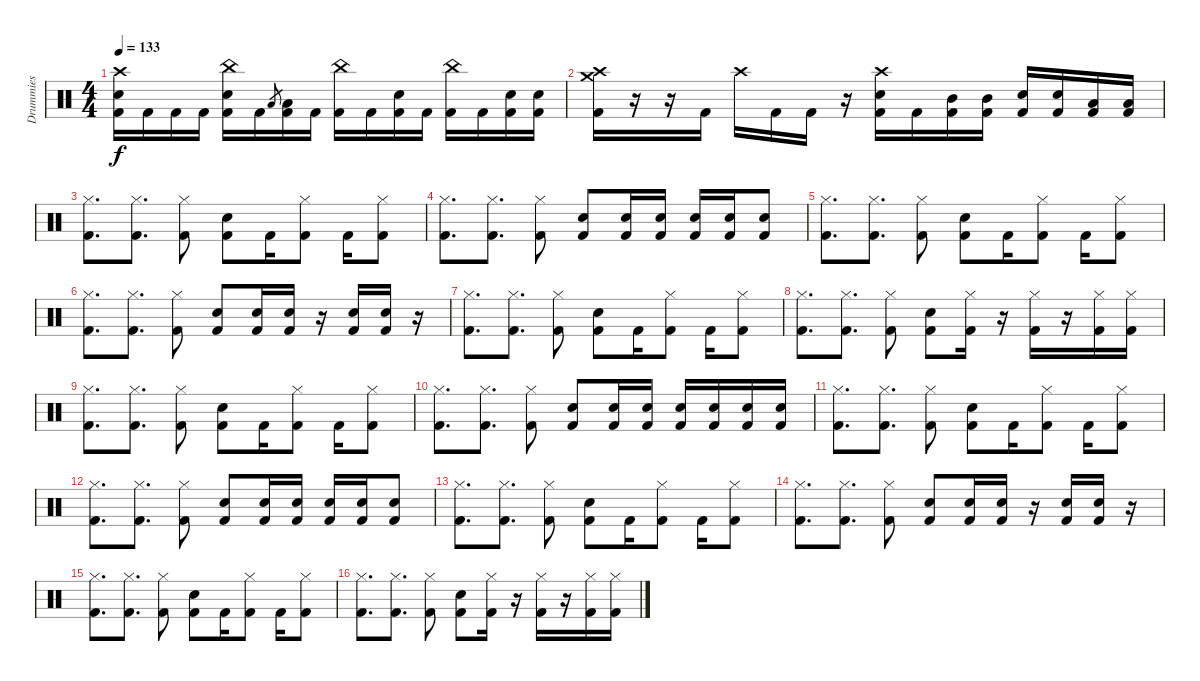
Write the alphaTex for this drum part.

\track ("Drummies" "Drummies") {instrument percussion}
\staff {score}
\articulation defaults
\ts (4 4)
\tempo 133
\clef neutral
\ks c
("Crash high (hit)" "Electric Snare (hit)" "Kick (hit) 2").16{dy f} "Kick (hit) 2".16 "Kick (hit) 2".16 "Kick (hit) 2".16 ("China (hit)" "Electric Snare (hit)" "Kick (hit) 2").16 "Kick (hit) 2".16 "Low Tom (hit)".8{gr} ("Low Tom (hit)" "Kick (hit) 2").16 "Kick (hit) 2".16 ("China (hit)" "Kick (hit) 2").16 "Kick (hit) 2".16 ("Electric Snare (hit)" "Kick (hit) 2").16 "Kick (hit) 2".16 ("China (hit)" "Kick (hit) 2").16 "Kick (hit) 2".16 ("Electric Snare (hit)" "Kick (hit) 2").16 ("Electric Snare (hit)" "Kick (hit) 2").16 |
("Crash medium (hit)" "Crash high (hit)" "Kick (hit) 2").16 r.16 r.16 "Kick (hit) 2".16 "Crash high (hit)".16 "Kick (hit) 2".16 "Kick (hit) 2".16 r.16 ("Crash high (hit)" "Electric Snare (hit)" "Kick (hit) 2").16 "Kick (hit) 2".16 ("Mid Tom (hit)" "Kick (hit) 2").16 ("Mid Tom (hit)" "Kick (hit) 2").16 ("Electric Snare (hit)" "Kick (hit) 2").16 ("Electric Snare (hit)" "Kick (hit) 2").16 ("Low Tom (hit)" "Kick (hit) 2").16 ("Low Tom (hit)" "Kick (hit) 2").16 |
("Hi-Hat (closed)" "Kick (hit) 2").8{d} ("Hi-Hat (closed)" "Kick (hit) 2").8{d} ("Hi-Hat (closed)" "Kick (hit) 2").8 ("Hand Clap (hit)" "Kick (hit) 2").8 "Kick (hit) 2".16 ("Hi-Hat (closed)" "Kick (hit) 2").8 "Kick (hit) 2".16 ("Hi-Hat (closed)" "Kick (hit) 2").8 |
("Hi-Hat (closed)" "Kick (hit) 2").8{d} ("Hi-Hat (closed)" "Kick (hit) 2").8{d} ("Hi-Hat (closed)" "Kick (hit) 2").8 ("Hand Clap (hit)" "Kick (hit) 2").8 ("Hand Clap (hit)" "Kick (hit) 2").16 ("Hand Clap (hit)" "Kick (hit) 2").16 ("Hand Clap (hit)" "Kick (hit) 2").16 ("Hand Clap (hit)" "Kick (hit) 2").16 ("Hand Clap (hit)" "Kick (hit) 2").8 |
("Hi-Hat (closed)" "Kick (hit) 2").8{d} ("Hi-Hat (closed)" "Kick (hit) 2").8{d} ("Hi-Hat (closed)" "Kick (hit) 2").8 ("Hand Clap (hit)" "Kick (hit) 2").8 "Kick (hit) 2".16 ("Hi-Hat (closed)" "Kick (hit) 2").8 "Kick (hit) 2".16 ("Hi-Hat (closed)" "Kick (hit) 2").8 |
("Hi-Hat (closed)" "Kick (hit) 2").8{d} ("Hi-Hat (closed)" "Kick (hit) 2").8{d} ("Hi-Hat (closed)" "Kick (hit) 2").8 ("Hand Clap (hit)" "Kick (hit) 2").8 ("Hand Clap (hit)" "Kick (hit) 2").16 ("Hand Clap (hit)" "Kick (hit) 2").16 r.16 ("Hand Clap (hit)" "Kick (hit) 2").16 ("Hand Clap (hit)" "Kick (hit) 2").16 r.16 |
("Hi-Hat (closed)" "Kick (hit) 2").8{d} ("Hi-Hat (closed)" "Kick (hit) 2").8{d} ("Hi-Hat (closed)" "Kick (hit) 2").8 ("Hand Clap (hit)" "Kick (hit) 2").8 "Kick (hit) 2".16 ("Hi-Hat (closed)" "Kick (hit) 2").8 "Kick (hit) 2".16 ("Hi-Hat (closed)" "Kick (hit) 2").8 |
("Hi-Hat (closed)" "Kick (hit) 2").8{d} ("Hi-Hat (closed)" "Kick (hit) 2").8{d} ("Hi-Hat (closed)" "Kick (hit) 2").8 ("Hand Clap (hit)" "Kick (hit) 2").8 ("Hi-Hat (closed)" "Kick (hit) 2").16 r.16 ("Hi-Hat (closed)" "Kick (hit) 2").16 r.16 ("Hi-Hat (closed)" "Kick (hit) 2").16 ("Hi-Hat (closed)" "Kick (hit) 2").16 |
("Hi-Hat (closed)" "Kick (hit) 2").8{d} ("Hi-Hat (closed)" "Kick (hit) 2").8{d} ("Hi-Hat (closed)" "Kick (hit) 2").8 ("Hand Clap (hit)" "Kick (hit) 2").8 "Kick (hit) 2".16 ("Hi-Hat (closed)" "Kick (hit) 2").8 "Kick (hit) 2".16 ("Hi-Hat (closed)" "Kick (hit) 2").8 |
("Hi-Hat (closed)" "Kick (hit) 2").8{d} ("Hi-Hat (closed)" "Kick (hit) 2").8{d} ("Hi-Hat (closed)" "Kick (hit) 2").8 ("Hand Clap (hit)" "Kick (hit) 2").8 ("Hand Clap (hit)" "Kick (hit) 2").16 ("Hand Clap (hit)" "Kick (hit) 2").16 ("Hand Clap (hit)" "Kick (hit) 2").16 ("Hand Clap (hit)" "Kick (hit) 2").16 ("Hand Clap (hit)" "Kick (hit) 2").16 ("Hand Clap (hit)" "Kick (hit) 2").16 |
("Hi-Hat (closed)" "Kick (hit) 2").8{d} ("Hi-Hat (closed)" "Kick (hit) 2").8{d} ("Hi-Hat (closed)" "Kick (hit) 2").8 ("Hand Clap (hit)" "Kick (hit) 2").8 "Kick (hit) 2".16 ("Hi-Hat (closed)" "Kick (hit) 2").8 "Kick (hit) 2".16 ("Hi-Hat (closed)" "Kick (hit) 2").8 |
("Hi-Hat (closed)" "Kick (hit) 2").8{d} ("Hi-Hat (closed)" "Kick (hit) 2").8{d} ("Hi-Hat (closed)" "Kick (hit) 2").8 ("Hand Clap (hit)" "Kick (hit) 2").8 ("Hand Clap (hit)" "Kick (hit) 2").16 ("Hand Clap (hit)" "Kick (hit) 2").16 ("Hand Clap (hit)" "Kick (hit) 2").16 ("Hand Clap (hit)" "Kick (hit) 2").16 ("Hand Clap (hit)" "Kick (hit) 2").8 |
("Hi-Hat (closed)" "Kick (hit) 2").8{d} ("Hi-Hat (closed)" "Kick (hit) 2").8{d} ("Hi-Hat (closed)" "Kick (hit) 2").8 ("Hand Clap (hit)" "Kick (hit) 2").8 "Kick (hit) 2".16 ("Hi-Hat (closed)" "Kick (hit) 2").8 "Kick (hit) 2".16 ("Hi-Hat (closed)" "Kick (hit) 2").8 |
("Hi-Hat (closed)" "Kick (hit) 2").8{d} ("Hi-Hat (closed)" "Kick (hit) 2").8{d} ("Hi-Hat (closed)" "Kick (hit) 2").8 ("Hand Clap (hit)" "Kick (hit) 2").8 ("Hand Clap (hit)" "Kick (hit) 2").16 ("Hand Clap (hit)" "Kick (hit) 2").16 r.16 ("Hand Clap (hit)" "Kick (hit) 2").16 ("Hand Clap (hit)" "Kick (hit) 2").16 r.16 |
("Hi-Hat (closed)" "Kick (hit) 2").8{d} ("Hi-Hat (closed)" "Kick (hit) 2").8{d} ("Hi-Hat (closed)" "Kick (hit) 2").8 ("Hand Clap (hit)" "Kick (hit) 2").8 "Kick (hit) 2".16 ("Hi-Hat (closed)" "Kick (hit) 2").8 "Kick (hit) 2".16 ("Hi-Hat (closed)" "Kick (hit) 2").8 |
("Hi-Hat (closed)" "Kick (hit) 2").8{d} ("Hi-Hat (closed)" "Kick (hit) 2").8{d} ("Hi-Hat (closed)" "Kick (hit) 2").8 ("Hand Clap (hit)" "Kick (hit) 2").8 ("Hi-Hat (closed)" "Kick (hit) 2").16 r.16 ("Hi-Hat (closed)" "Kick (hit) 2").16 r.16 ("Hi-Hat (closed)" "Kick (hit) 2").16 ("Hi-Hat (closed)" "Kick (hit) 2").16
